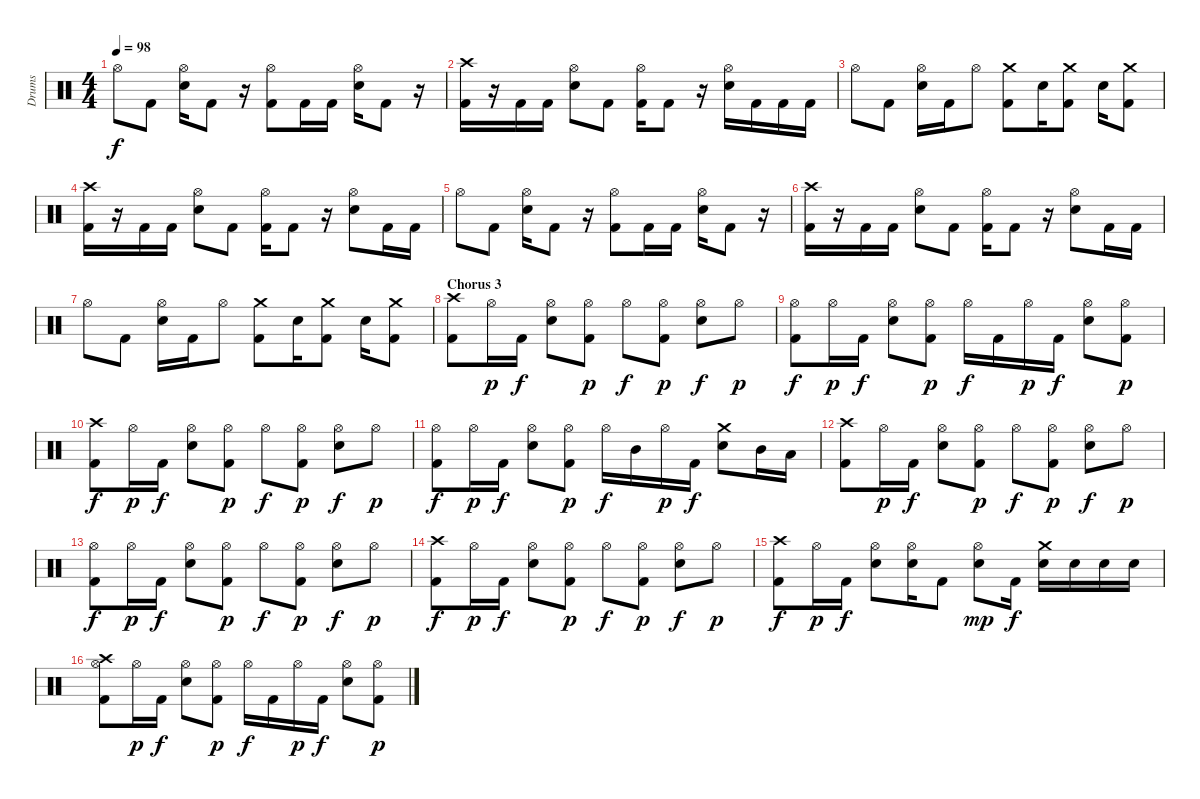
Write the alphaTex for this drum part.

\track ("Drums" "Drums") {instrument percussion}
\staff {score}
\articulation defaults
\ts (4 4)
\tempo 98
\clef neutral
\ks c "Hi-Hat (open)".8{dy f} "Kick (hit) 2".8
("Hi-Hat (open)" "Electric Snare (hit)").16 "Kick (hit) 2".8 r.16 ("Hi-Hat (open)" "Kick (hit) 2").8 "Kick (hit) 2".16 "Kick (hit) 2".16 ("Hi-Hat (open)" "Electric Snare (hit)").16 "Kick (hit) 2".8 r.16 |
("Crash high (hit)" "Kick (hit) 2").16 r.16 "Kick (hit) 2".16 "Kick (hit) 2".16 ("Hi-Hat (open)" "Electric Snare (hit)").8 "Kick (hit) 2".8 ("Hi-Hat (open)" "Kick (hit) 2").16 "Kick (hit) 2".8 r.16 ("Hi-Hat (open)" "Electric Snare (hit)").16 "Kick (hit) 2".16 "Kick (hit) 2".16 "Kick (hit) 2".16 |
"Hi-Hat (open)".8 "Kick (hit) 2".8 ("Hi-Hat (open)" "Electric Snare (hit)").16 "Kick (hit) 2".16 "Hi-Hat (open)".8 ("Crash medium (hit)" "Kick (hit) 2").8 "Electric Snare (hit)".16 ("Crash medium (hit)" "Kick (hit) 2").8 "Electric Snare (hit)".16 ("Crash medium (hit)" "Kick (hit) 2").8 |
("Crash high (hit)" "Kick (hit) 2").16 r.16 "Kick (hit) 2".16 "Kick (hit) 2".16 ("Hi-Hat (open)" "Electric Snare (hit)").8 "Kick (hit) 2".8 ("Hi-Hat (open)" "Kick (hit) 2").16 "Kick (hit) 2".8 r.16 ("Hi-Hat (open)" "Electric Snare (hit)").8 "Kick (hit) 2".16 "Kick (hit) 2".16 |
"Hi-Hat (open)".8 "Kick (hit) 2".8 ("Hi-Hat (open)" "Electric Snare (hit)").16 "Kick (hit) 2".8 r.16 ("Hi-Hat (open)" "Kick (hit) 2").8 "Kick (hit) 2".16 "Kick (hit) 2".16 ("Hi-Hat (open)" "Electric Snare (hit)").16 "Kick (hit) 2".8 r.16 |
("Crash high (hit)" "Kick (hit) 2").16 r.16 "Kick (hit) 2".16 "Kick (hit) 2".16 ("Hi-Hat (open)" "Electric Snare (hit)").8 "Kick (hit) 2".8 ("Hi-Hat (open)" "Kick (hit) 2").16 "Kick (hit) 2".8 r.16 ("Hi-Hat (open)" "Electric Snare (hit)").8 "Kick (hit) 2".16 "Kick (hit) 2".16 |
"Hi-Hat (open)".8 "Kick (hit) 2".8 ("Hi-Hat (open)" "Electric Snare (hit)").16 "Kick (hit) 2".16 "Hi-Hat (open)".8 ("Crash medium (hit)" "Kick (hit) 2").8 "Electric Snare (hit)".16 ("Crash medium (hit)" "Kick (hit) 2").8 "Electric Snare (hit)".16 ("Crash medium (hit)" "Kick (hit) 2").8 |
\section ("" "Chorus 3")
("Crash high (hit)" "Kick (hit) 2").8 "Hi-Hat (open)".16{dy p} "Kick (hit) 2".16{dy f} ("Hi-Hat (open)" "Electric Snare (hit)").8 ("Hi-Hat (open)" "Kick (hit) 2").8{dy p} "Hi-Hat (open)".8{dy f} ("Hi-Hat (open)" "Kick (hit) 2").8{dy p} ("Hi-Hat (open)" "Electric Snare (hit)").8{dy f} "Hi-Hat (open)".8{dy p} |
("Hi-Hat (open)" "Kick (hit) 2").8{dy f} "Hi-Hat (open)".16{dy p} "Kick (hit) 2".16{dy f} ("Hi-Hat (open)" "Electric Snare (hit)").8 ("Hi-Hat (open)" "Kick (hit) 2").8{dy p} "Hi-Hat (open)".16{dy f} "Kick (hit) 2".16 "Hi-Hat (open)".16{dy p} "Kick (hit) 2".16{dy f} ("Hi-Hat (open)" "Electric Snare (hit)").8 ("Hi-Hat (open)" "Kick (hit) 2").8{dy p} |
("Crash high (hit)" "Kick (hit) 2").8{dy f} "Hi-Hat (open)".16{dy p} "Kick (hit) 2".16{dy f} ("Hi-Hat (open)" "Electric Snare (hit)").8 ("Hi-Hat (open)" "Kick (hit) 2").8{dy p} "Hi-Hat (open)".8{dy f} ("Hi-Hat (open)" "Kick (hit) 2").8{dy p} ("Hi-Hat (open)" "Electric Snare (hit)").8{dy f} "Hi-Hat (open)".8{dy p} |
("Hi-Hat (open)" "Kick (hit) 2").8{dy f} "Hi-Hat (open)".16{dy p} "Kick (hit) 2".16{dy f} ("Hi-Hat (open)" "Electric Snare (hit)").8 ("Hi-Hat (open)" "Kick (hit) 2").8{dy p} "Hi-Hat (open)".16{dy f} "Mid Tom (hit)".16 "Hi-Hat (open)".16{dy p} "Kick (hit) 2".16{dy f} ("Crash medium (hit)" "Electric Snare (hit)").8 "Mid Tom (hit)".16 "Low Tom (hit)".16 |
("Crash high (hit)" "Kick (hit) 2").8 "Hi-Hat (open)".16{dy p} "Kick (hit) 2".16{dy f} ("Hi-Hat (open)" "Electric Snare (hit)").8 ("Hi-Hat (open)" "Kick (hit) 2").8{dy p} "Hi-Hat (open)".8{dy f} ("Hi-Hat (open)" "Kick (hit) 2").8{dy p} ("Hi-Hat (open)" "Electric Snare (hit)").8{dy f} "Hi-Hat (open)".8{dy p} |
("Hi-Hat (open)" "Kick (hit) 2").8{dy f} "Hi-Hat (open)".16{dy p} "Kick (hit) 2".16{dy f} ("Hi-Hat (open)" "Electric Snare (hit)").8 ("Hi-Hat (open)" "Kick (hit) 2").8{dy p} "Hi-Hat (open)".8{dy f} ("Hi-Hat (open)" "Kick (hit) 2").8{dy p} ("Hi-Hat (open)" "Electric Snare (hit)").8{dy f} "Hi-Hat (open)".8{dy p} |
("Crash high (hit)" "Kick (hit) 2").8{dy f} "Hi-Hat (open)".16{dy p} "Kick (hit) 2".16{dy f} ("Hi-Hat (open)" "Electric Snare (hit)").8 ("Hi-Hat (open)" "Kick (hit) 2").8{dy p} "Hi-Hat (open)".8{dy f} ("Hi-Hat (open)" "Kick (hit) 2").8{dy p} ("Hi-Hat (open)" "Electric Snare (hit)").8{dy f} "Hi-Hat (open)".8{dy p} |
("Crash high (hit)" "Kick (hit) 2").8{dy f} "Hi-Hat (open)".16{dy p} "Kick (hit) 2".16{dy f} ("Hi-Hat (open)" "Electric Snare (hit)").8 ("Hi-Hat (open)" "Electric Snare (hit)").16 "Kick (hit) 2".8 ("Hi-Hat (open)" "Electric Snare (hit)").8{dy mp} "Kick (hit) 2".16{dy f} ("Crash medium (hit)" "Electric Snare (hit)").16 "Electric Snare (hit)".16 "Electric Snare (hit)".16 "Electric Snare (hit)".16 |
("Crash high (hit)" "Hi-Hat (open)" "Kick (hit) 2").8 "Hi-Hat (open)".16{dy p} "Kick (hit) 2".16{dy f} ("Hi-Hat (open)" "Electric Snare (hit)").8 ("Hi-Hat (open)" "Kick (hit) 2").8{dy p} "Hi-Hat (open)".16{dy f} "Kick (hit) 2".16 "Hi-Hat (open)".16{dy p} "Kick (hit) 2".16{dy f} ("Hi-Hat (open)" "Electric Snare (hit)").8 ("Hi-Hat (open)" "Kick (hit) 2").8{dy p}
